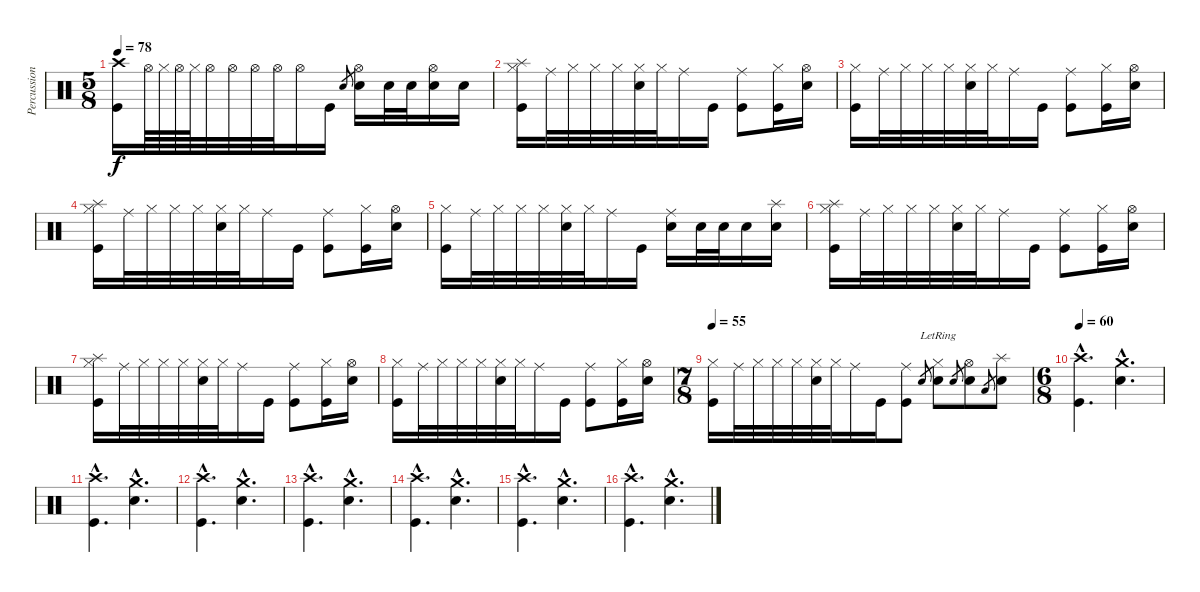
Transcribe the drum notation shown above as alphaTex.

\track ("Percussions" "Percussion") {instrument percussion}
\staff {score}
\articulation defaults
\ts (5 8)
\tempo 78
\clef neutral
\ks c
("Crash high (hit)" "Kick (hit)").16{dy f} "Hi-Hat (open)".64 "Hi-Hat (closed)".64 "Hi-Hat (open)".64 "Hi-Hat (closed)".64 "Hi-Hat (open)".32 "Hi-Hat (open)".32 "Hi-Hat (open)".32 "Hi-Hat (open)".32 "Hi-Hat (open)".16 "Kick (hit)".16 "Snare (hit) 2".8{gr} ("Hi-Hat (open)" "Snare (hit) 2").16 "Snare (hit) 2".32 "Snare (hit) 2".32 ("Hi-Hat (open)" "Snare (hit) 2").16 "Snare (hit) 2".16 |
("Splash (hit)" "Hi-Hat (closed)" "Kick (hit)").16 "Ride (middle)".32 "Hi-Hat (closed)".32 "Hi-Hat (closed)".32 "Hi-Hat (closed)".32 ("Hi-Hat (closed)" "Snare (hit) 2").32 "Hi-Hat (closed)".32 "Ride (middle)".16 "Kick (hit)".16 ("Ride (middle)" "Kick (hit)").8 ("Hi-Hat (closed)" "Kick (hit)").16 ("Hi-Hat (open)" "Snare (hit) 2").16 |
("Hi-Hat (closed)" "Kick (hit)").16 "Ride (middle)".32 "Hi-Hat (closed)".32 "Hi-Hat (closed)".32 "Hi-Hat (closed)".32 ("Hi-Hat (closed)" "Snare (hit) 2").32 "Hi-Hat (closed)".32 "Ride (middle)".16 "Kick (hit)".16 ("Ride (middle)" "Kick (hit)").8 ("Hi-Hat (closed)" "Kick (hit)").16 ("Hi-Hat (open)" "Snare (hit) 2").16 |
("Splash (hit)" "Hi-Hat (closed)" "Kick (hit)").16 "Ride (middle)".32 "Hi-Hat (closed)".32 "Hi-Hat (closed)".32 "Hi-Hat (closed)".32 ("Hi-Hat (closed)" "Snare (hit) 2").32 "Hi-Hat (closed)".32 "Ride (middle)".16 "Kick (hit)".16 ("Ride (middle)" "Kick (hit)").8 ("Hi-Hat (closed)" "Kick (hit)").16 ("Hi-Hat (open)" "Snare (hit) 2").16 |
("Hi-Hat (closed)" "Kick (hit)").16 "Ride (middle)".32 "Hi-Hat (closed)".32 "Hi-Hat (closed)".32 "Hi-Hat (closed)".32 ("Hi-Hat (closed)" "Snare (hit) 2").32 "Hi-Hat (closed)".32 "Ride (middle)".16 "Kick (hit)".16 ("Ride (middle)" "Snare (hit) 2").16 "Snare (hit) 2".32 "Snare (hit) 2".32 "Snare (hit) 2".16 ("Splash (hit)" "Snare (hit) 2").16 |
("Splash (hit)" "Hi-Hat (closed)" "Kick (hit)").16 "Ride (middle)".32 "Hi-Hat (closed)".32 "Hi-Hat (closed)".32 "Hi-Hat (closed)".32 ("Hi-Hat (closed)" "Snare (hit) 2").32 "Hi-Hat (closed)".32 "Ride (middle)".16 "Kick (hit)".16 ("Ride (middle)" "Kick (hit)").8 ("Hi-Hat (closed)" "Kick (hit)").16 ("Hi-Hat (open)" "Snare (hit) 2").16 |
("Splash (hit)" "Hi-Hat (closed)" "Kick (hit)").16 "Ride (middle)".32 "Hi-Hat (closed)".32 "Hi-Hat (closed)".32 "Hi-Hat (closed)".32 ("Hi-Hat (closed)" "Snare (hit) 2").32 "Hi-Hat (closed)".32 "Ride (middle)".16 "Kick (hit)".16 ("Ride (middle)" "Kick (hit)").8 ("Hi-Hat (closed)" "Kick (hit)").16 ("Hi-Hat (open)" "Snare (hit) 2").16 |
("Hi-Hat (closed)" "Kick (hit)").16 "Ride (middle)".32 "Hi-Hat (closed)".32 "Hi-Hat (closed)".32 "Hi-Hat (closed)".32 ("Hi-Hat (closed)" "Snare (hit) 2").32 "Hi-Hat (closed)".32 "Ride (middle)".16 "Kick (hit)".16 ("Ride (middle)" "Kick (hit)").8 ("Hi-Hat (closed)" "Kick (hit)").16 ("Hi-Hat (open)" "Snare (hit) 2").16 |
\ts (7 8)
\tempo 55
("Hi-Hat (closed)" "Kick (hit)").16 "Ride (middle)".32 "Hi-Hat (closed)".32 "Hi-Hat (closed)".32 "Hi-Hat (closed)".32 ("Hi-Hat (closed)" "Snare (hit) 2").32 "Hi-Hat (closed)".32 "Ride (middle)".16 "Kick (hit)".16 ("Ride (middle)" "Kick (hit)").8 "Snare (hit) 2".8{gr} ("Hi-Hat (closed)" "Snare (hit) 2"{lr}).8 "Snare (hit) 2".8{gr} ("Hi-Hat (open)" "Snare (hit) 2").8 "Low Tom (hit)".8{gr} ("Splash (hit)" "Snare (hit) 2").8 |
\ts (6 8)
\tempo 60
("Crash high (hit)"{hac} "Kick (hit)"{hac}).4{d} ("Crash medium (hit)"{hac} "Snare (hit) 2"{hac}).4{d} |
("Crash high (hit)"{hac} "Kick (hit)"{hac}).4{d} ("Crash medium (hit)"{hac} "Snare (hit) 2"{hac}).4{d} |
("Crash high (hit)"{hac} "Kick (hit)"{hac}).4{d} ("Crash medium (hit)"{hac} "Snare (hit) 2"{hac}).4{d} |
("Crash high (hit)"{hac} "Kick (hit)"{hac}).4{d} ("Crash medium (hit)"{hac} "Snare (hit) 2"{hac}).4{d} |
("Crash high (hit)"{hac} "Kick (hit)"{hac}).4{d} ("Crash medium (hit)"{hac} "Snare (hit) 2"{hac}).4{d} |
("Crash high (hit)"{hac} "Kick (hit)"{hac}).4{d} ("Crash medium (hit)"{hac} "Snare (hit) 2"{hac}).4{d} |
("Crash high (hit)"{hac} "Kick (hit)"{hac}).4{d} ("Crash medium (hit)"{hac} "Snare (hit) 2"{hac}).4{d}
